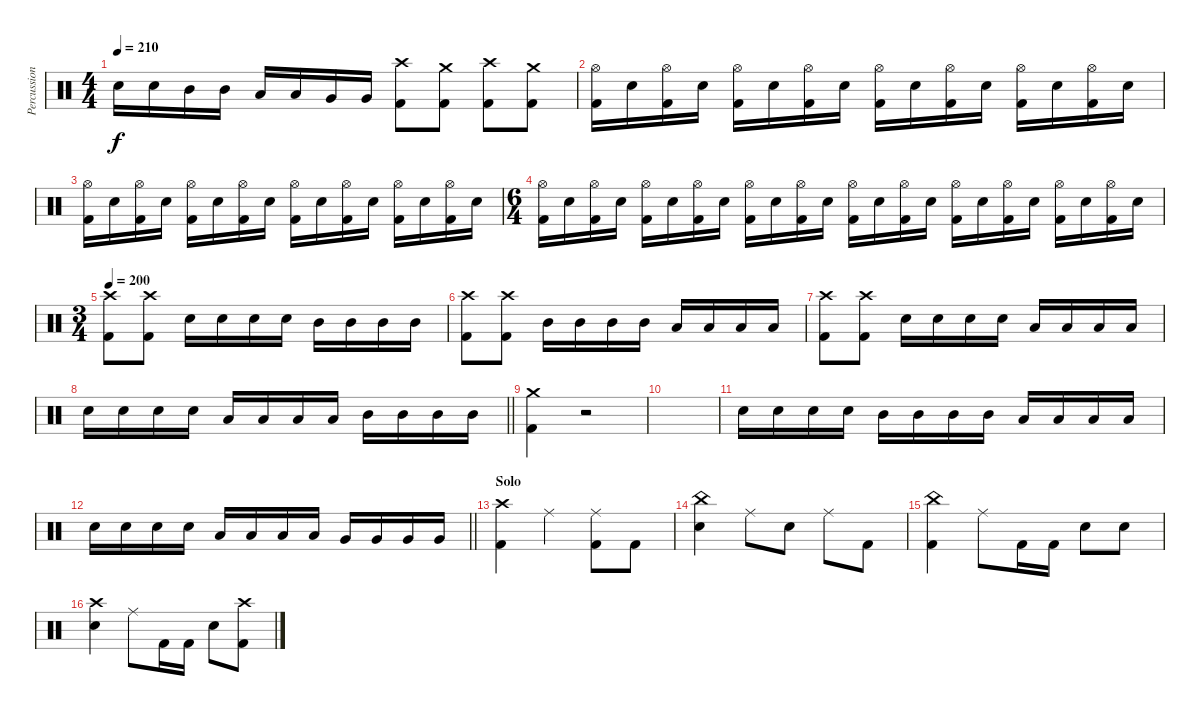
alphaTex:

\track ("Percussion" "Percussion") {instrument percussion}
\staff {score}
\articulation defaults
\ts (4 4)
\tempo 210
\clef neutral
\ks c "Electric Snare (hit)".16{dy f} "Electric Snare (hit)".16 "Mid Tom (hit)".16 "Mid Tom (hit)".16 "Low Tom (hit)".16 "Low Tom (hit)".16 "Very Low Tom (hit)".16 "Very Low Tom (hit)".16
("Crash high (hit)" "Kick (hit) 2").8 ("Crash medium (hit)" "Kick (hit) 2").8 ("Crash high (hit)" "Kick (hit) 2").8 ("Crash medium (hit)" "Kick (hit) 2").8 |
("Hi-Hat (open)" "Kick (hit) 2").16 "Electric Snare (hit)".16 ("Hi-Hat (open)" "Kick (hit) 2").16 "Electric Snare (hit)".16 ("Hi-Hat (open)" "Kick (hit) 2").16 "Electric Snare (hit)".16 ("Hi-Hat (open)" "Kick (hit) 2").16 "Electric Snare (hit)".16 ("Hi-Hat (open)" "Kick (hit) 2").16 "Electric Snare (hit)".16 ("Hi-Hat (open)" "Kick (hit) 2").16 "Electric Snare (hit)".16 ("Hi-Hat (open)" "Kick (hit) 2").16 "Electric Snare (hit)".16 ("Hi-Hat (open)" "Kick (hit) 2").16 "Electric Snare (hit)".16 |
("Hi-Hat (open)" "Kick (hit) 2").16 "Electric Snare (hit)".16 ("Hi-Hat (open)" "Kick (hit) 2").16 "Electric Snare (hit)".16 ("Hi-Hat (open)" "Kick (hit) 2").16 "Electric Snare (hit)".16 ("Hi-Hat (open)" "Kick (hit) 2").16 "Electric Snare (hit)".16 ("Hi-Hat (open)" "Kick (hit) 2").16 "Electric Snare (hit)".16 ("Hi-Hat (open)" "Kick (hit) 2").16 "Electric Snare (hit)".16 ("Hi-Hat (open)" "Kick (hit) 2").16 "Electric Snare (hit)".16 ("Hi-Hat (open)" "Kick (hit) 2").16 "Electric Snare (hit)".16 |
\ts (6 4)
("Hi-Hat (open)" "Kick (hit) 2").16 "Electric Snare (hit)".16 ("Hi-Hat (open)" "Kick (hit) 2").16 "Electric Snare (hit)".16 ("Hi-Hat (open)" "Kick (hit) 2").16 "Electric Snare (hit)".16 ("Hi-Hat (open)" "Kick (hit) 2").16 "Electric Snare (hit)".16 ("Hi-Hat (open)" "Kick (hit) 2").16 "Electric Snare (hit)".16 ("Hi-Hat (open)" "Kick (hit) 2").16 "Electric Snare (hit)".16 ("Hi-Hat (open)" "Kick (hit) 2").16 "Electric Snare (hit)".16 ("Hi-Hat (open)" "Kick (hit) 2").16 "Electric Snare (hit)".16 ("Hi-Hat (open)" "Kick (hit) 2").16 "Electric Snare (hit)".16 ("Hi-Hat (open)" "Kick (hit) 2").16 "Electric Snare (hit)".16 ("Hi-Hat (open)" "Kick (hit) 2").16 "Electric Snare (hit)".16 ("Hi-Hat (open)" "Kick (hit) 2").16 "Electric Snare (hit)".16 |
\ts (3 4)
\tempo 200
("Crash high (hit)" "Kick (hit) 2").8 ("Crash high (hit)" "Kick (hit) 2").8 "Electric Snare (hit)".16 "Electric Snare (hit)".16 "Electric Snare (hit)".16 "Electric Snare (hit)".16 "Mid Tom (hit)".16 "Mid Tom (hit)".16 "Mid Tom (hit)".16 "Mid Tom (hit)".16 |
("Crash high (hit)" "Kick (hit) 2").8 ("Crash high (hit)" "Kick (hit) 2").8 "Mid Tom (hit)".16 "Mid Tom (hit)".16 "Mid Tom (hit)".16 "Mid Tom (hit)".16 "Low Tom (hit)".16 "Low Tom (hit)".16 "Low Tom (hit)".16 "Low Tom (hit)".16 |
("Crash high (hit)" "Kick (hit) 2").8 ("Crash high (hit)" "Kick (hit) 2").8 "Electric Snare (hit)".16 "Electric Snare (hit)".16 "Electric Snare (hit)".16 "Electric Snare (hit)".16 "Low Tom (hit)".16 "Low Tom (hit)".16 "Low Tom (hit)".16 "Low Tom (hit)".16 |
\barLineRight lightlight "Electric Snare (hit)".16 "Electric Snare (hit)".16 "Electric Snare (hit)".16 "Electric Snare (hit)".16 "Low Tom (hit)".16 "Low Tom (hit)".16 "Low Tom (hit)".16 "Low Tom (hit)".16 "Mid Tom (hit)".16 "Mid Tom (hit)".16 "Mid Tom (hit)".16 "Mid Tom (hit)".16
|
("Crash medium (hit)" "Kick (hit) 2").4 r.2 |
|
"Electric Snare (hit)".16 "Electric Snare (hit)".16 "Electric Snare (hit)".16 "Electric Snare (hit)".16 "Mid Tom (hit)".16 "Mid Tom (hit)".16 "Mid Tom (hit)".16 "Mid Tom (hit)".16 "Low Tom (hit)".16 "Low Tom (hit)".16 "Low Tom (hit)".16 "Low Tom (hit)".16 |
\barLineRight lightlight "Electric Snare (hit)".16 "Electric Snare (hit)".16 "Electric Snare (hit)".16 "Electric Snare (hit)".16 "Low Tom (hit)".16 "Low Tom (hit)".16 "Low Tom (hit)".16 "Low Tom (hit)".16 "Very Low Tom (hit)".16 "Very Low Tom (hit)".16 "Very Low Tom (hit)".16 "Very Low Tom (hit)".16
|
\section ("" "Solo")
("Crash high (hit)" "Kick (hit) 2").4 "Ride (middle)".4 ("Ride (middle)" "Kick (hit) 2").8 "Kick (hit) 2".8 |
("China (hit)" "Electric Snare (hit)").4 "Ride (middle)".8 "Electric Snare (hit)".8 "Ride (middle)".8 "Kick (hit) 2".8 |
("China (hit)" "Kick (hit) 2").4 "Ride (middle)".8 "Kick (hit) 2".16 "Kick (hit) 2".16 "Electric Snare (hit)".8 "Electric Snare (hit)".8 |
("Crash high (hit)" "Electric Snare (hit)").4 "Ride (middle)".8 "Kick (hit) 2".16 "Kick (hit) 2".16 "Electric Snare (hit)".8 ("Crash high (hit)" "Kick (hit) 2").8
